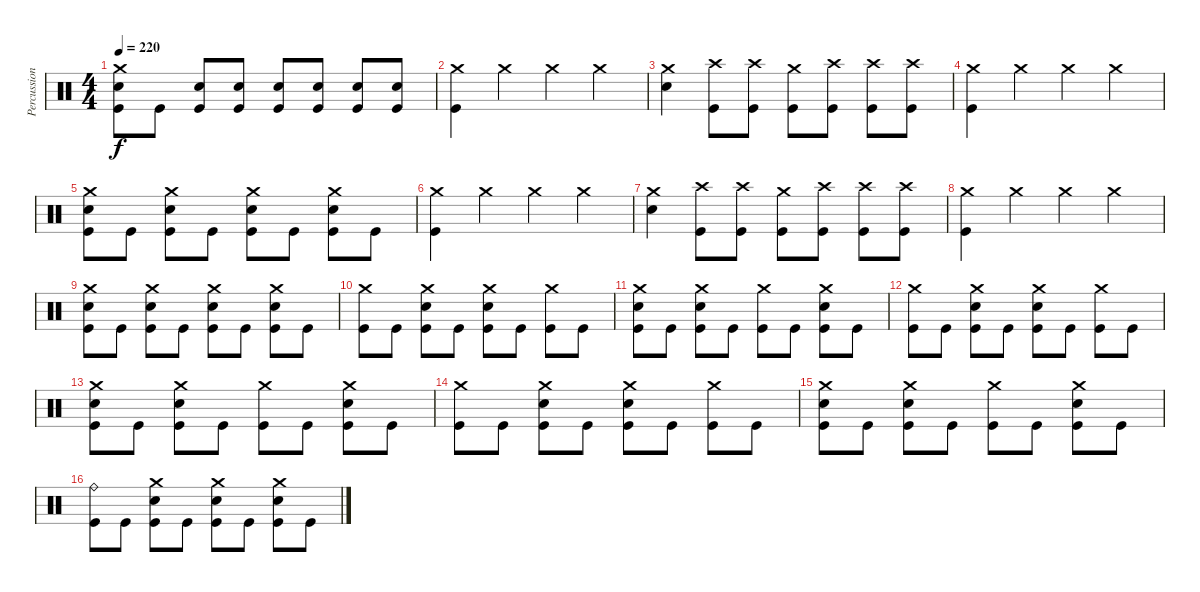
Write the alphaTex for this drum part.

\track ("Percussion" "Percussion") {instrument percussion}
\staff {score}
\articulation defaults
\ts (4 4)
\tempo 220
\clef neutral
\ks c
("Crash medium (hit)" "Snare (hit) 2" "Kick (hit)").8{dy f} "Kick (hit)".8 ("Snare (hit) 2" "Kick (hit)").8 ("Snare (hit) 2" "Kick (hit)").8 ("Snare (hit) 2" "Kick (hit)").8 ("Snare (hit) 2" "Kick (hit)").8 ("Snare (hit) 2" "Kick (hit)").8 ("Snare (hit) 2" "Kick (hit)").8 |
("Crash medium (hit)" "Kick (hit)").4 "Crash medium (hit)".4 "Crash medium (hit)".4 "Crash medium (hit)".4 |
("Crash medium (hit)" "Snare (hit) 2").4 ("Crash high (hit)" "Kick (hit)").8 ("Crash high (hit)" "Kick (hit)").8 ("Crash medium (hit)" "Kick (hit)").8 ("Crash high (hit)" "Kick (hit)").8 ("Crash high (hit)" "Kick (hit)").8 ("Crash high (hit)" "Kick (hit)").8 |
("Crash medium (hit)" "Kick (hit)").4 "Crash medium (hit)".4 "Crash medium (hit)".4 "Crash medium (hit)".4 |
("Crash medium (hit)" "Snare (hit) 2" "Kick (hit)").8 "Kick (hit)".8 ("Crash medium (hit)" "Snare (hit) 2" "Kick (hit)").8 "Kick (hit)".8 ("Crash medium (hit)" "Snare (hit) 2" "Kick (hit)").8 "Kick (hit)".8 ("Crash medium (hit)" "Snare (hit) 2" "Kick (hit)").8 "Kick (hit)".8 |
("Crash medium (hit)" "Kick (hit)").4 "Crash medium (hit)".4 "Crash medium (hit)".4 "Crash medium (hit)".4 |
("Crash medium (hit)" "Snare (hit) 2").4 ("Crash high (hit)" "Kick (hit)").8 ("Crash high (hit)" "Kick (hit)").8 ("Crash medium (hit)" "Kick (hit)").8 ("Crash high (hit)" "Kick (hit)").8 ("Crash high (hit)" "Kick (hit)").8 ("Crash high (hit)" "Kick (hit)").8 |
("Crash medium (hit)" "Kick (hit)").4 "Crash medium (hit)".4 "Crash medium (hit)".4 "Crash medium (hit)".4 |
("Crash medium (hit)" "Snare (hit) 2" "Kick (hit)").8 "Kick (hit)".8 ("Crash medium (hit)" "Snare (hit) 2" "Kick (hit)").8 "Kick (hit)".8 ("Crash medium (hit)" "Snare (hit) 2" "Kick (hit)").8 "Kick (hit)".8 ("Crash medium (hit)" "Snare (hit) 2" "Kick (hit)").8 "Kick (hit)".8 |
("Crash medium (hit)" "Kick (hit)").8 "Kick (hit)".8 ("Crash medium (hit)" "Snare (hit) 2" "Kick (hit)").8 "Kick (hit)".8 ("Crash medium (hit)" "Snare (hit) 2" "Kick (hit)").8 "Kick (hit)".8 ("Crash medium (hit)" "Kick (hit)").8 "Kick (hit)".8 |
("Crash medium (hit)" "Snare (hit) 2" "Kick (hit)").8 "Kick (hit)".8 ("Crash medium (hit)" "Snare (hit) 2" "Kick (hit)").8 "Kick (hit)".8 ("Crash medium (hit)" "Kick (hit)").8 "Kick (hit)".8 ("Crash medium (hit)" "Snare (hit) 2" "Kick (hit)").8 "Kick (hit)".8 |
("Crash medium (hit)" "Kick (hit)").8 "Kick (hit)".8 ("Crash medium (hit)" "Snare (hit) 2" "Kick (hit)").8 "Kick (hit)".8 ("Crash medium (hit)" "Snare (hit) 2" "Kick (hit)").8 "Kick (hit)".8 ("Crash medium (hit)" "Kick (hit)").8 "Kick (hit)".8 |
("Crash medium (hit)" "Snare (hit) 2" "Kick (hit)").8 "Kick (hit)".8 ("Crash medium (hit)" "Snare (hit) 2" "Kick (hit)").8 "Kick (hit)".8 ("Crash medium (hit)" "Kick (hit)").8 "Kick (hit)".8 ("Crash medium (hit)" "Snare (hit) 2" "Kick (hit)").8 "Kick (hit)".8 |
("Crash medium (hit)" "Kick (hit)").8 "Kick (hit)".8 ("Crash medium (hit)" "Snare (hit) 2" "Kick (hit)").8 "Kick (hit)".8 ("Crash medium (hit)" "Snare (hit) 2" "Kick (hit)").8 "Kick (hit)".8 ("Crash medium (hit)" "Kick (hit)").8 "Kick (hit)".8 |
("Crash medium (hit)" "Snare (hit) 2" "Kick (hit)").8 "Kick (hit)".8 ("Crash medium (hit)" "Snare (hit) 2" "Kick (hit)").8 "Kick (hit)".8 ("Crash medium (hit)" "Kick (hit)").8 "Kick (hit)".8 ("Crash medium (hit)" "Snare (hit) 2" "Kick (hit)").8 "Kick (hit)".8 |
("Ride (bell)" "Kick (hit)").8 "Kick (hit)".8 ("Crash medium (hit)" "Snare (hit) 2" "Kick (hit)").8 "Kick (hit)".8 ("Crash medium (hit)" "Snare (hit) 2" "Kick (hit)").8 "Kick (hit)".8 ("Crash medium (hit)" "Snare (hit) 2" "Kick (hit)").8 "Kick (hit)".8
